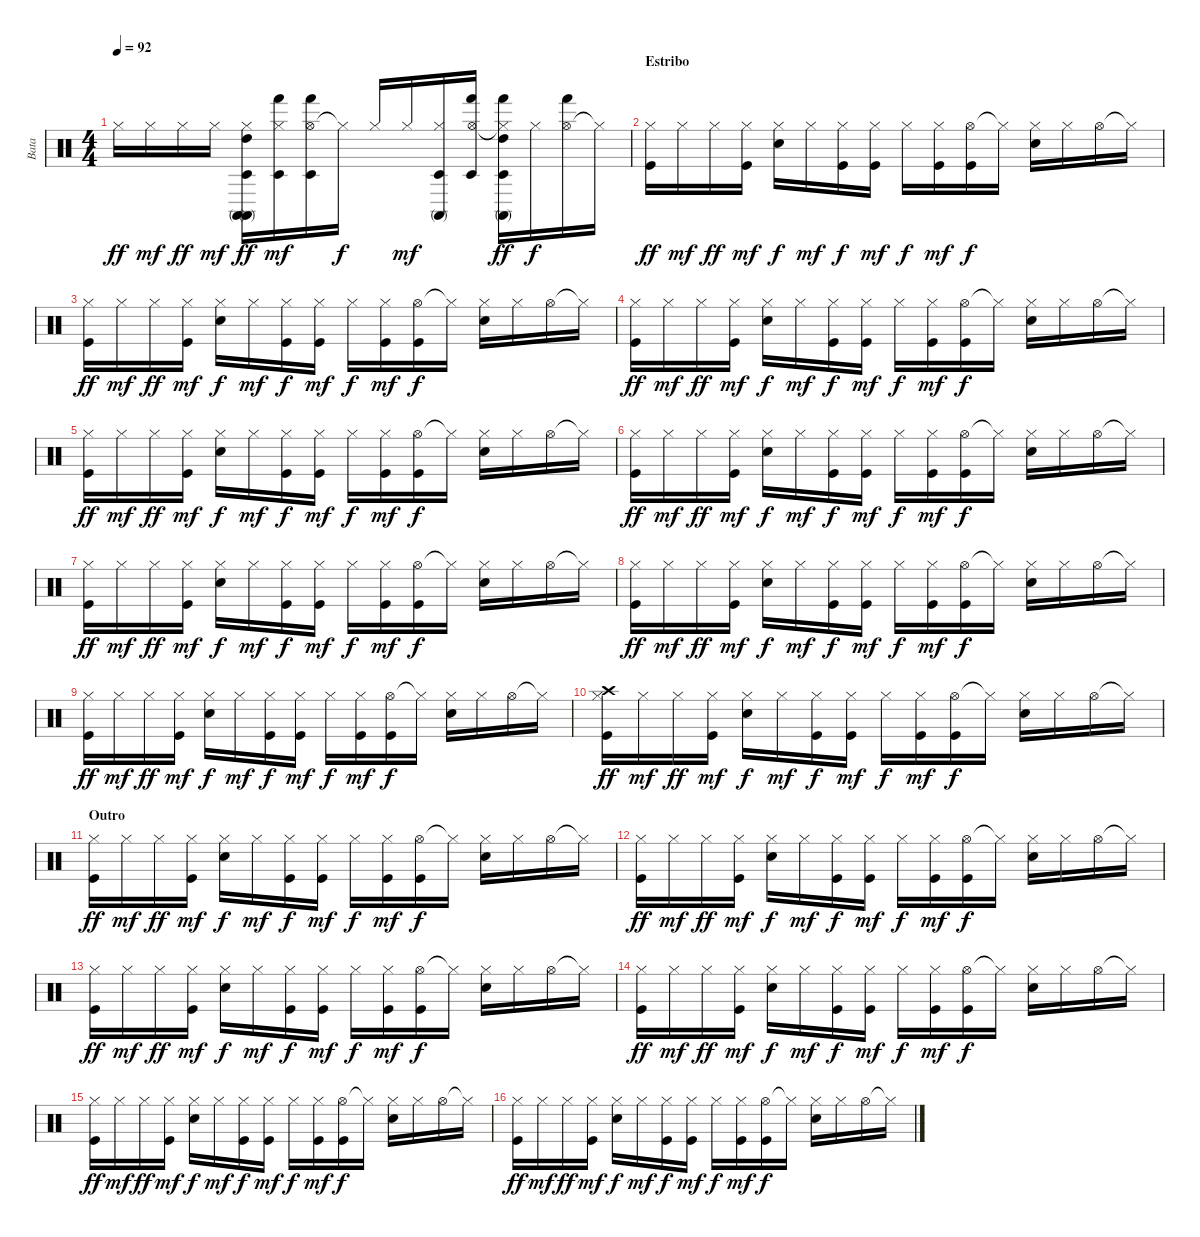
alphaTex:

\track ("Bata" "Bata") {instrument percussion}
\staff {score}
\articulation defaults
\ts (4 4)
\tempo 92
\clef neutral
\ks c "Hi-Hat (closed)".16{dy ff} "Hi-Hat (closed)".16{dy mf} "Hi-Hat (closed)".16{dy ff} "Hi-Hat (closed)".16{dy mf}
("Hi-Hat (closed)" "Timbale low (hit)" "Conga high (mute)" "High Tom (hit)" "Conga high (mute)").16{dy ff} ("Hi-Hat (closed)" "Timbale low (hit)" "Hand (hit)").16{dy mf} ("Hi-Hat (open)" "Timbale low (hit)" "Hand (hit)").16 "Hi-Hat (closed)"{t}.16{dy f} "Hi-Hat (closed)".16 "Hi-Hat (closed)".16{dy mf} ("Hi-Hat (closed)" "Timbale low (hit)" "Conga high (mute)").16 ("Hi-Hat (open)" "Timbale low (hit)" "Hand (hit)").16 ("Hi-Hat (closed)"{t} "Timbale low (hit)" "Hand (hit)" "High Tom (hit)" "Conga high (mute)").16{dy ff} "Hi-Hat (closed)".16{dy f} ("Hi-Hat (open)" "Hand (hit)").16 "Hi-Hat (closed)"{t}.16 |
\section ("" "Estribo")
("Hi-Hat (closed)" "Kick (hit)").16{dy ff} "Hi-Hat (closed)".16{dy mf} "Hi-Hat (closed)".16{dy ff} ("Hi-Hat (closed)" "Kick (hit)").16{dy mf} ("Hi-Hat (closed)" "Electric Snare (hit)").16{dy f} "Hi-Hat (closed)".16{dy mf} ("Hi-Hat (closed)" "Kick (hit)").16{dy f} ("Hi-Hat (closed)" "Kick (hit)").16{dy mf} "Hi-Hat (closed)".16{dy f} ("Hi-Hat (closed)" "Kick (hit)").16{dy mf} ("Hi-Hat (open)" "Kick (hit)").16{dy f} "Hi-Hat (closed)"{t}.16 ("Hi-Hat (closed)" "Electric Snare (hit)").16 "Hi-Hat (closed)".16 "Hi-Hat (open)".16 "Hi-Hat (closed)"{t}.16 |
("Hi-Hat (closed)" "Kick (hit)").16{dy ff} "Hi-Hat (closed)".16{dy mf} "Hi-Hat (closed)".16{dy ff} ("Hi-Hat (closed)" "Kick (hit)").16{dy mf} ("Hi-Hat (closed)" "Electric Snare (hit)").16{dy f} "Hi-Hat (closed)".16{dy mf} ("Hi-Hat (closed)" "Kick (hit)").16{dy f} ("Hi-Hat (closed)" "Kick (hit)").16{dy mf} "Hi-Hat (closed)".16{dy f} ("Hi-Hat (closed)" "Kick (hit)").16{dy mf} ("Hi-Hat (open)" "Kick (hit)").16{dy f} "Hi-Hat (closed)"{t}.16 ("Hi-Hat (closed)" "Electric Snare (hit)").16 "Hi-Hat (closed)".16 "Hi-Hat (open)".16 "Hi-Hat (closed)"{t}.16 |
("Hi-Hat (closed)" "Kick (hit)").16{dy ff} "Hi-Hat (closed)".16{dy mf} "Hi-Hat (closed)".16{dy ff} ("Hi-Hat (closed)" "Kick (hit)").16{dy mf} ("Hi-Hat (closed)" "Electric Snare (hit)").16{dy f} "Hi-Hat (closed)".16{dy mf} ("Hi-Hat (closed)" "Kick (hit)").16{dy f} ("Hi-Hat (closed)" "Kick (hit)").16{dy mf} "Hi-Hat (closed)".16{dy f} ("Hi-Hat (closed)" "Kick (hit)").16{dy mf} ("Hi-Hat (open)" "Kick (hit)").16{dy f} "Hi-Hat (closed)"{t}.16 ("Hi-Hat (closed)" "Electric Snare (hit)").16 "Hi-Hat (closed)".16 "Hi-Hat (open)".16 "Hi-Hat (closed)"{t}.16 |
("Hi-Hat (closed)" "Kick (hit)").16{dy ff} "Hi-Hat (closed)".16{dy mf} "Hi-Hat (closed)".16{dy ff} ("Hi-Hat (closed)" "Kick (hit)").16{dy mf} ("Hi-Hat (closed)" "Electric Snare (hit)").16{dy f} "Hi-Hat (closed)".16{dy mf} ("Hi-Hat (closed)" "Kick (hit)").16{dy f} ("Hi-Hat (closed)" "Kick (hit)").16{dy mf} "Hi-Hat (closed)".16{dy f} ("Hi-Hat (closed)" "Kick (hit)").16{dy mf} ("Hi-Hat (open)" "Kick (hit)").16{dy f} "Hi-Hat (closed)"{t}.16 ("Hi-Hat (closed)" "Electric Snare (hit)").16 "Hi-Hat (closed)".16 "Hi-Hat (open)".16 "Hi-Hat (closed)"{t}.16 |
("Hi-Hat (closed)" "Kick (hit)").16{dy ff} "Hi-Hat (closed)".16{dy mf} "Hi-Hat (closed)".16{dy ff} ("Hi-Hat (closed)" "Kick (hit)").16{dy mf} ("Hi-Hat (closed)" "Electric Snare (hit)").16{dy f} "Hi-Hat (closed)".16{dy mf} ("Hi-Hat (closed)" "Kick (hit)").16{dy f} ("Hi-Hat (closed)" "Kick (hit)").16{dy mf} "Hi-Hat (closed)".16{dy f} ("Hi-Hat (closed)" "Kick (hit)").16{dy mf} ("Hi-Hat (open)" "Kick (hit)").16{dy f} "Hi-Hat (closed)"{t}.16 ("Hi-Hat (closed)" "Electric Snare (hit)").16 "Hi-Hat (closed)".16 "Hi-Hat (open)".16 "Hi-Hat (closed)"{t}.16 |
("Hi-Hat (closed)" "Kick (hit)").16{dy ff} "Hi-Hat (closed)".16{dy mf} "Hi-Hat (closed)".16{dy ff} ("Hi-Hat (closed)" "Kick (hit)").16{dy mf} ("Hi-Hat (closed)" "Electric Snare (hit)").16{dy f} "Hi-Hat (closed)".16{dy mf} ("Hi-Hat (closed)" "Kick (hit)").16{dy f} ("Hi-Hat (closed)" "Kick (hit)").16{dy mf} "Hi-Hat (closed)".16{dy f} ("Hi-Hat (closed)" "Kick (hit)").16{dy mf} ("Hi-Hat (open)" "Kick (hit)").16{dy f} "Hi-Hat (closed)"{t}.16 ("Hi-Hat (closed)" "Electric Snare (hit)").16 "Hi-Hat (closed)".16 "Hi-Hat (open)".16 "Hi-Hat (closed)"{t}.16 |
("Hi-Hat (closed)" "Kick (hit)").16{dy ff} "Hi-Hat (closed)".16{dy mf} "Hi-Hat (closed)".16{dy ff} ("Hi-Hat (closed)" "Kick (hit)").16{dy mf} ("Hi-Hat (closed)" "Electric Snare (hit)").16{dy f} "Hi-Hat (closed)".16{dy mf} ("Hi-Hat (closed)" "Kick (hit)").16{dy f} ("Hi-Hat (closed)" "Kick (hit)").16{dy mf} "Hi-Hat (closed)".16{dy f} ("Hi-Hat (closed)" "Kick (hit)").16{dy mf} ("Hi-Hat (open)" "Kick (hit)").16{dy f} "Hi-Hat (closed)"{t}.16 ("Hi-Hat (closed)" "Electric Snare (hit)").16 "Hi-Hat (closed)".16 "Hi-Hat (open)".16 "Hi-Hat (closed)"{t}.16 |
("Hi-Hat (closed)" "Kick (hit)").16{dy ff} "Hi-Hat (closed)".16{dy mf} "Hi-Hat (closed)".16{dy ff} ("Hi-Hat (closed)" "Kick (hit)").16{dy mf} ("Hi-Hat (closed)" "Electric Snare (hit)").16{dy f} "Hi-Hat (closed)".16{dy mf} ("Hi-Hat (closed)" "Kick (hit)").16{dy f} ("Hi-Hat (closed)" "Kick (hit)").16{dy mf} "Hi-Hat (closed)".16{dy f} ("Hi-Hat (closed)" "Kick (hit)").16{dy mf} ("Hi-Hat (open)" "Kick (hit)").16{dy f} "Hi-Hat (closed)"{t}.16 ("Hi-Hat (closed)" "Electric Snare (hit)").16 "Hi-Hat (closed)".16 "Hi-Hat (open)".16 "Hi-Hat (closed)"{t}.16 |
("Hi-Hat (closed)" "Crash high (hit)" "Kick (hit)").16{dy ff} "Hi-Hat (closed)".16{dy mf} "Hi-Hat (closed)".16{dy ff} ("Hi-Hat (closed)" "Kick (hit)").16{dy mf} ("Hi-Hat (closed)" "Electric Snare (hit)").16{dy f} "Hi-Hat (closed)".16{dy mf} ("Hi-Hat (closed)" "Kick (hit)").16{dy f} ("Hi-Hat (closed)" "Kick (hit)").16{dy mf} "Hi-Hat (closed)".16{dy f} ("Hi-Hat (closed)" "Kick (hit)").16{dy mf} ("Hi-Hat (open)" "Kick (hit)").16{dy f} "Hi-Hat (closed)"{t}.16 ("Hi-Hat (closed)" "Electric Snare (hit)").16 "Hi-Hat (closed)".16 "Hi-Hat (open)".16 "Hi-Hat (closed)"{t}.16 |
\section ("" "Outro")
("Hi-Hat (closed)" "Kick (hit)").16{dy ff} "Hi-Hat (closed)".16{dy mf} "Hi-Hat (closed)".16{dy ff} ("Hi-Hat (closed)" "Kick (hit)").16{dy mf} ("Hi-Hat (closed)" "Electric Snare (hit)").16{dy f} "Hi-Hat (closed)".16{dy mf} ("Hi-Hat (closed)" "Kick (hit)").16{dy f} ("Hi-Hat (closed)" "Kick (hit)").16{dy mf} "Hi-Hat (closed)".16{dy f} ("Hi-Hat (closed)" "Kick (hit)").16{dy mf} ("Hi-Hat (open)" "Kick (hit)").16{dy f} "Hi-Hat (closed)"{t}.16 ("Hi-Hat (closed)" "Electric Snare (hit)").16 "Hi-Hat (closed)".16 "Hi-Hat (open)".16 "Hi-Hat (closed)"{t}.16 |
("Hi-Hat (closed)" "Kick (hit)").16{dy ff} "Hi-Hat (closed)".16{dy mf} "Hi-Hat (closed)".16{dy ff} ("Hi-Hat (closed)" "Kick (hit)").16{dy mf} ("Hi-Hat (closed)" "Electric Snare (hit)").16{dy f} "Hi-Hat (closed)".16{dy mf} ("Hi-Hat (closed)" "Kick (hit)").16{dy f} ("Hi-Hat (closed)" "Kick (hit)").16{dy mf} "Hi-Hat (closed)".16{dy f} ("Hi-Hat (closed)" "Kick (hit)").16{dy mf} ("Hi-Hat (open)" "Kick (hit)").16{dy f} "Hi-Hat (closed)"{t}.16 ("Hi-Hat (closed)" "Electric Snare (hit)").16 "Hi-Hat (closed)".16 "Hi-Hat (open)".16 "Hi-Hat (closed)"{t}.16 |
("Hi-Hat (closed)" "Kick (hit)").16{dy ff} "Hi-Hat (closed)".16{dy mf} "Hi-Hat (closed)".16{dy ff} ("Hi-Hat (closed)" "Kick (hit)").16{dy mf} ("Hi-Hat (closed)" "Electric Snare (hit)").16{dy f} "Hi-Hat (closed)".16{dy mf} ("Hi-Hat (closed)" "Kick (hit)").16{dy f} ("Hi-Hat (closed)" "Kick (hit)").16{dy mf} "Hi-Hat (closed)".16{dy f} ("Hi-Hat (closed)" "Kick (hit)").16{dy mf} ("Hi-Hat (open)" "Kick (hit)").16{dy f} "Hi-Hat (closed)"{t}.16 ("Hi-Hat (closed)" "Electric Snare (hit)").16 "Hi-Hat (closed)".16 "Hi-Hat (open)".16 "Hi-Hat (closed)"{t}.16 |
("Hi-Hat (closed)" "Kick (hit)").16{dy ff} "Hi-Hat (closed)".16{dy mf} "Hi-Hat (closed)".16{dy ff} ("Hi-Hat (closed)" "Kick (hit)").16{dy mf} ("Hi-Hat (closed)" "Electric Snare (hit)").16{dy f} "Hi-Hat (closed)".16{dy mf} ("Hi-Hat (closed)" "Kick (hit)").16{dy f} ("Hi-Hat (closed)" "Kick (hit)").16{dy mf} "Hi-Hat (closed)".16{dy f} ("Hi-Hat (closed)" "Kick (hit)").16{dy mf} ("Hi-Hat (open)" "Kick (hit)").16{dy f} "Hi-Hat (closed)"{t}.16 ("Hi-Hat (closed)" "Electric Snare (hit)").16 "Hi-Hat (closed)".16 "Hi-Hat (open)".16 "Hi-Hat (closed)"{t}.16 |
("Hi-Hat (closed)" "Kick (hit)").16{dy ff} "Hi-Hat (closed)".16{dy mf} "Hi-Hat (closed)".16{dy ff} ("Hi-Hat (closed)" "Kick (hit)").16{dy mf} ("Hi-Hat (closed)" "Electric Snare (hit)").16{dy f} "Hi-Hat (closed)".16{dy mf} ("Hi-Hat (closed)" "Kick (hit)").16{dy f} ("Hi-Hat (closed)" "Kick (hit)").16{dy mf} "Hi-Hat (closed)".16{dy f} ("Hi-Hat (closed)" "Kick (hit)").16{dy mf} ("Hi-Hat (open)" "Kick (hit)").16{dy f} "Hi-Hat (closed)"{t}.16 ("Hi-Hat (closed)" "Electric Snare (hit)").16 "Hi-Hat (closed)".16 "Hi-Hat (open)".16 "Hi-Hat (closed)"{t}.16 |
("Hi-Hat (closed)" "Kick (hit)").16{dy ff} "Hi-Hat (closed)".16{dy mf} "Hi-Hat (closed)".16{dy ff} ("Hi-Hat (closed)" "Kick (hit)").16{dy mf} ("Hi-Hat (closed)" "Electric Snare (hit)").16{dy f} "Hi-Hat (closed)".16{dy mf} ("Hi-Hat (closed)" "Kick (hit)").16{dy f} ("Hi-Hat (closed)" "Kick (hit)").16{dy mf} "Hi-Hat (closed)".16{dy f} ("Hi-Hat (closed)" "Kick (hit)").16{dy mf} ("Hi-Hat (open)" "Kick (hit)").16{dy f} "Hi-Hat (closed)"{t}.16 ("Hi-Hat (closed)" "Electric Snare (hit)").16 "Hi-Hat (closed)".16 "Hi-Hat (open)".16 "Hi-Hat (closed)"{t}.16
